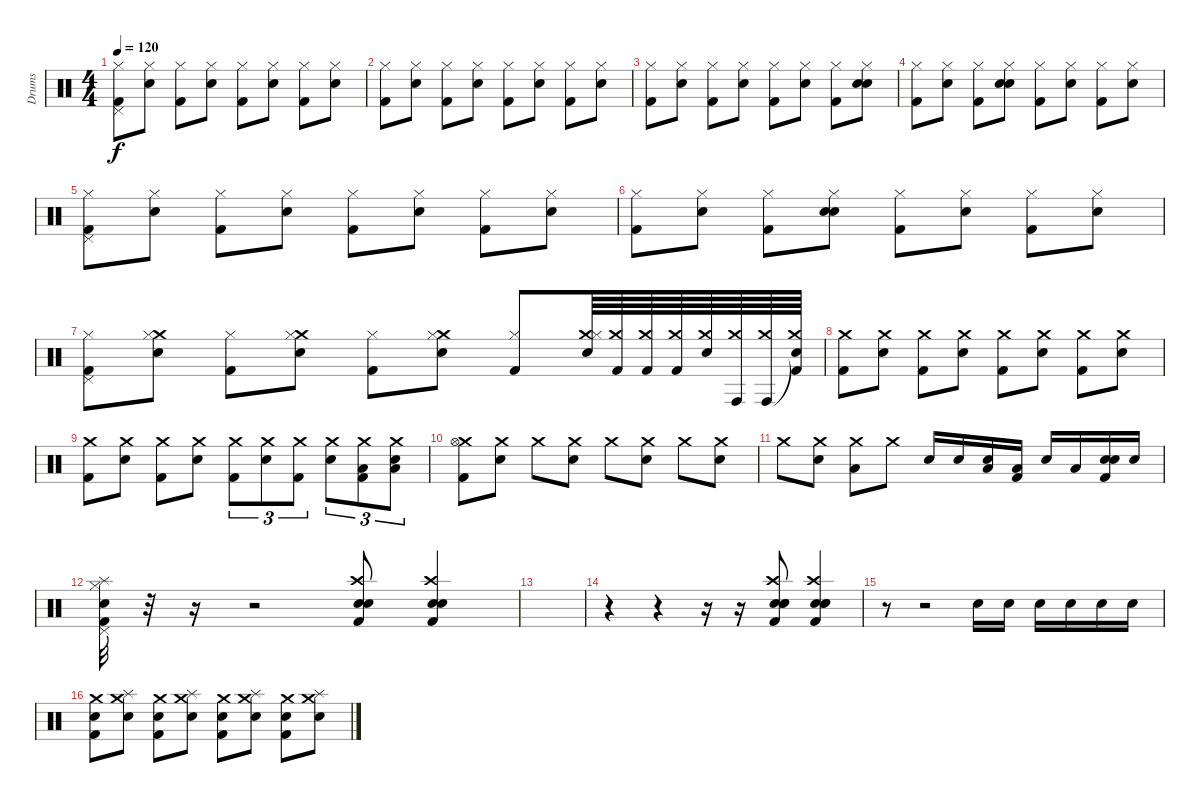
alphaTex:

\track ("Drums" "Drums") {instrument percussion}
\staff {score}
\articulation defaults
\ts (4 4)
\tempo 120
\clef neutral
\ks c
("Pedal Hi-Hat (hit)" "Hi-Hat (closed)" "Kick (hit) 2").8{dy f} ("Hi-Hat (closed)" "Snare (hit) 2").8 ("Hi-Hat (closed)" "Kick (hit) 2").8 ("Hi-Hat (closed)" "Snare (hit) 2").8 ("Hi-Hat (closed)" "Kick (hit) 2").8 ("Hi-Hat (closed)" "Snare (hit) 2").8 ("Hi-Hat (closed)" "Kick (hit) 2").8 ("Hi-Hat (closed)" "Snare (hit) 2").8 |
("Hi-Hat (closed)" "Kick (hit) 2").8 ("Hi-Hat (closed)" "Snare (hit) 2").8 ("Hi-Hat (closed)" "Kick (hit) 2").8 ("Hi-Hat (closed)" "Snare (hit) 2").8 ("Hi-Hat (closed)" "Kick (hit) 2").8 ("Hi-Hat (closed)" "Snare (hit) 2").8 ("Hi-Hat (closed)" "Kick (hit) 2").8 ("Hi-Hat (closed)" "Snare (hit) 2").8 |
("Hi-Hat (closed)" "Kick (hit) 2").8 ("Hi-Hat (closed)" "Snare (hit) 2").8 ("Hi-Hat (closed)" "Kick (hit) 2").8 ("Hi-Hat (closed)" "Snare (hit) 2").8 ("Hi-Hat (closed)" "Kick (hit) 2").8 ("Hi-Hat (closed)" "Snare (hit) 2").8 ("Hi-Hat (closed)" "Kick (hit) 2").8 ("Hi-Hat (closed)" "Snare (hit) 2" "Snare (hit)").8 |
("Hi-Hat (closed)" "Kick (hit) 2").8 ("Hi-Hat (closed)" "Snare (hit) 2").8 ("Hi-Hat (closed)" "Kick (hit) 2").8 ("Hi-Hat (closed)" "Snare (hit) 2" "Snare (hit)").8 ("Hi-Hat (closed)" "Kick (hit) 2").8 ("Hi-Hat (closed)" "Snare (hit) 2").8 ("Hi-Hat (closed)" "Kick (hit) 2").8 ("Hi-Hat (closed)" "Snare (hit) 2").8 |
("Pedal Hi-Hat (hit)" "Hi-Hat (closed)" "Kick (hit) 2").8 ("Hi-Hat (closed)" "Snare (hit) 2").8 ("Hi-Hat (closed)" "Kick (hit) 2").8 ("Hi-Hat (closed)" "Snare (hit) 2").8 ("Hi-Hat (closed)" "Kick (hit) 2").8 ("Hi-Hat (closed)" "Snare (hit) 2").8 ("Hi-Hat (closed)" "Kick (hit) 2").8 ("Hi-Hat (closed)" "Snare (hit) 2").8 |
("Hi-Hat (closed)" "Kick (hit) 2").8 ("Hi-Hat (closed)" "Snare (hit) 2").8 ("Hi-Hat (closed)" "Kick (hit) 2").8 ("Hi-Hat (closed)" "Snare (hit) 2" "Snare (hit)").8 ("Hi-Hat (closed)" "Kick (hit) 2").8 ("Hi-Hat (closed)" "Snare (hit) 2").8 ("Hi-Hat (closed)" "Kick (hit) 2").8 ("Hi-Hat (closed)" "Snare (hit) 2").8 |
("Pedal Hi-Hat (hit)" "Hi-Hat (closed)" "Kick (hit) 2").8 ("Crash medium (hit)" "Hi-Hat (closed)" "Snare (hit) 2").8 ("Hi-Hat (closed)" "Kick (hit) 2").8 ("Crash medium (hit)" "Hi-Hat (closed)" "Snare (hit) 2").8 ("Hi-Hat (closed)" "Kick (hit) 2").8 ("Crash medium (hit)" "Hi-Hat (closed)" "Snare (hit) 2").8 ("Hi-Hat (closed)" "Kick (hit) 2").8 ("Crash medium (hit)" "Hi-Hat (closed)" "Snare (hit) 2").64 ("Crash medium (hit)" "Kick (hit) 2").64 ("Crash medium (hit)" "Kick (hit) 2").64 ("Crash medium (hit)" "Kick (hit) 2").64 ("Crash medium (hit)" "Snare (hit)").64 ("Crash medium (hit)" "Conga high (hit)").64 ("Crash medium (hit)" "Conga high (hit)").64 ("Crash medium (hit)" "Snare (hit)"{t} "Kick (hit) 2").64 |
("Crash medium (hit)" "Kick (hit) 2").8 ("Crash medium (hit)" "Snare (hit) 2").8 ("Crash medium (hit)" "Kick (hit) 2").8 ("Crash medium (hit)" "Snare (hit) 2").8 ("Crash medium (hit)" "Kick (hit) 2").8 ("Crash medium (hit)" "Snare (hit) 2").8 ("Crash medium (hit)" "Kick (hit) 2").8 ("Crash medium (hit)" "Snare (hit) 2").8 |
("Crash medium (hit)" "Kick (hit) 2").8 ("Crash medium (hit)" "Snare (hit) 2").8 ("Crash medium (hit)" "Kick (hit) 2").8 ("Crash medium (hit)" "Snare (hit) 2").8 ("Crash medium (hit)" "Kick (hit) 2").8{tu (3 2)} ("Crash medium (hit)" "Snare (hit) 2").8{tu (3 2)} ("Crash medium (hit)" "Kick (hit) 2").8{tu (3 2)} ("Crash medium (hit)" "Snare (hit) 2").8{tu (3 2)} ("Crash medium (hit)" "Low Tom (hit)" "Kick (hit) 2").8{tu (3 2)} ("Crash medium (hit)" "Low Floor Tom (hit)" "Snare (hit) 2").8{tu (3 2)} |
("Crash medium (hit)" "Hi-Hat (open)" "Kick (hit) 2").8 ("Crash medium (hit)" "Snare (hit) 2").8 "Crash medium (hit)".8 ("Crash medium (hit)" "Snare (hit) 2").8 "Crash medium (hit)".8 ("Crash medium (hit)" "Snare (hit) 2").8 "Crash medium (hit)".8 ("Crash medium (hit)" "Snare (hit) 2").8 |
"Crash medium (hit)".8 ("Crash medium (hit)" "Snare (hit) 2").8 ("Crash medium (hit)" "Low Tom (hit)").8 "Crash medium (hit)".8 "Snare (hit) 2".16 "Snare (hit) 2".16 ("Low Tom (hit)" "Snare (hit) 2").16 ("Low Tom (hit)" "Kick (hit) 2").16 "Snare (hit) 2".16 "Low Floor Tom (hit)".16 ("Snare (hit)" "Snare (hit) 2" "Kick (hit) 2").16 "Snare (hit) 2".16 |
("Splash (hit)" "Pedal Hi-Hat (hit)" "Hi-Hat (closed)" "Snare (hit) 2" "Kick (hit) 2").32 r.32 r.16 r.2 ("Crash high (hit)" "Hand Clap (hit)" "Snare (hit) 2" "Kick (hit) 2").8 ("Crash high (hit)" "Hand Clap (hit)" "Snare (hit) 2" "Kick (hit) 2").4 |
|
r.4 r.4 r.16 r.16 ("Hand Clap (hit)" "Crash high (hit)" "Hand Clap (hit)" "Snare (hit) 2" "Kick (hit) 2").8 ("Hand Clap (hit)" "Crash high (hit)" "Hand Clap (hit)" "Snare (hit) 2" "Kick (hit) 2").4 |
r.8 r.2 "Snare (hit) 2".16 "Snare (hit) 2".16 "Snare (hit) 2".16 "Snare (hit) 2".16 "Snare (hit) 2".16 "Snare (hit) 2".16 |
("Crash medium (hit)" "Snare (hit)" "Kick (hit) 2").8 ("Crash medium (hit)" "Splash (hit)" "Snare (hit) 2").8 ("Crash medium (hit)" "Snare (hit)" "Kick (hit) 2").8 ("Crash medium (hit)" "Splash (hit)" "Snare (hit) 2").8 ("Crash medium (hit)" "Snare (hit)" "Kick (hit) 2").8 ("Crash medium (hit)" "Splash (hit)" "Snare (hit) 2").8 ("Crash medium (hit)" "Snare (hit)" "Kick (hit) 2").8 ("Crash medium (hit)" "Splash (hit)" "Snare (hit) 2").8
